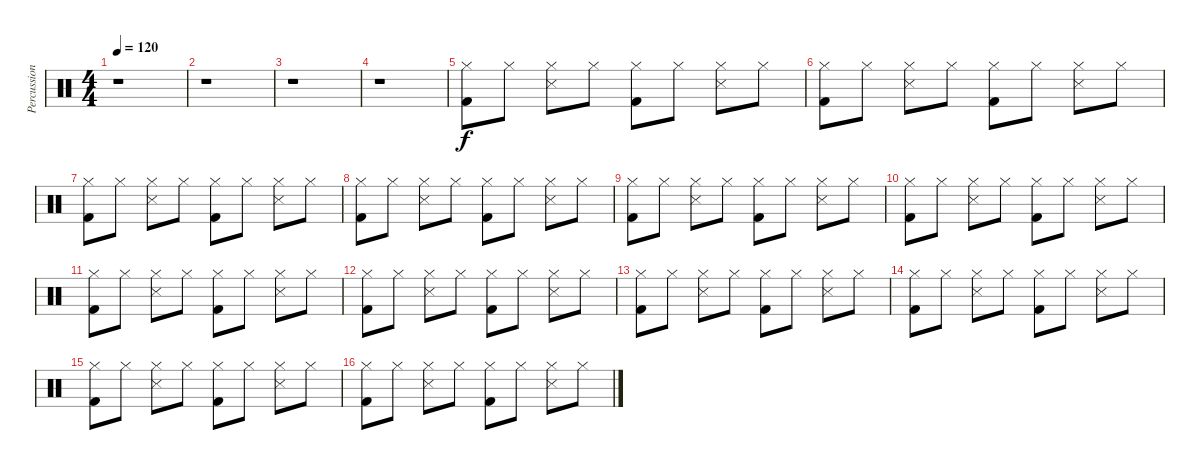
\track ("Percussions" "Percussion") {instrument percussion}
\staff {score}
\articulation defaults
\ts (4 4)
\tempo 120
\clef neutral
\ks c
r.1{dy f} |
r.1 |
r.1 |
r.1 |
("Kick (hit) 2" "Hi-Hat (closed)").8 "Hi-Hat (closed)".8 ("Snare (side stick) 3" "Hi-Hat (closed)").8 "Hi-Hat (closed)".8 ("Kick (hit) 2" "Hi-Hat (closed)").8 "Hi-Hat (closed)".8 ("Snare (side stick) 3" "Hi-Hat (closed)").8 "Hi-Hat (closed)".8 |
("Kick (hit) 2" "Hi-Hat (closed)").8 "Hi-Hat (closed)".8 ("Snare (side stick) 3" "Hi-Hat (closed)").8 "Hi-Hat (closed)".8 ("Kick (hit) 2" "Hi-Hat (closed)").8 "Hi-Hat (closed)".8 ("Snare (side stick) 3" "Hi-Hat (closed)").8 "Hi-Hat (closed)".8 |
("Kick (hit) 2" "Hi-Hat (closed)").8 "Hi-Hat (closed)".8 ("Snare (side stick) 3" "Hi-Hat (closed)").8 "Hi-Hat (closed)".8 ("Kick (hit) 2" "Hi-Hat (closed)").8 "Hi-Hat (closed)".8 ("Snare (side stick) 3" "Hi-Hat (closed)").8 "Hi-Hat (closed)".8 |
("Kick (hit) 2" "Hi-Hat (closed)").8 "Hi-Hat (closed)".8 ("Snare (side stick) 3" "Hi-Hat (closed)").8 "Hi-Hat (closed)".8 ("Kick (hit) 2" "Hi-Hat (closed)").8 "Hi-Hat (closed)".8 ("Snare (side stick) 3" "Hi-Hat (closed)").8 "Hi-Hat (closed)".8 |
("Kick (hit) 2" "Hi-Hat (closed)").8 "Hi-Hat (closed)".8 ("Snare (side stick) 3" "Hi-Hat (closed)").8 "Hi-Hat (closed)".8 ("Kick (hit) 2" "Hi-Hat (closed)").8 "Hi-Hat (closed)".8 ("Snare (side stick) 3" "Hi-Hat (closed)").8 "Hi-Hat (closed)".8 |
("Kick (hit) 2" "Hi-Hat (closed)").8 "Hi-Hat (closed)".8 ("Snare (side stick) 3" "Hi-Hat (closed)").8 "Hi-Hat (closed)".8 ("Kick (hit) 2" "Hi-Hat (closed)").8 "Hi-Hat (closed)".8 ("Snare (side stick) 3" "Hi-Hat (closed)").8 "Hi-Hat (closed)".8 |
("Kick (hit) 2" "Hi-Hat (closed)").8 "Hi-Hat (closed)".8 ("Snare (side stick) 3" "Hi-Hat (closed)").8 "Hi-Hat (closed)".8 ("Kick (hit) 2" "Hi-Hat (closed)").8 "Hi-Hat (closed)".8 ("Snare (side stick) 3" "Hi-Hat (closed)").8 "Hi-Hat (closed)".8 |
("Kick (hit) 2" "Hi-Hat (closed)").8 "Hi-Hat (closed)".8 ("Snare (side stick) 3" "Hi-Hat (closed)").8 "Hi-Hat (closed)".8 ("Kick (hit) 2" "Hi-Hat (closed)").8 "Hi-Hat (closed)".8 ("Snare (side stick) 3" "Hi-Hat (closed)").8 "Hi-Hat (closed)".8 |
("Kick (hit) 2" "Hi-Hat (closed)").8 "Hi-Hat (closed)".8 ("Snare (side stick) 3" "Hi-Hat (closed)").8 "Hi-Hat (closed)".8 ("Kick (hit) 2" "Hi-Hat (closed)").8 "Hi-Hat (closed)".8 ("Snare (side stick) 3" "Hi-Hat (closed)").8 "Hi-Hat (closed)".8 |
("Kick (hit) 2" "Hi-Hat (closed)").8 "Hi-Hat (closed)".8 ("Snare (side stick) 3" "Hi-Hat (closed)").8 "Hi-Hat (closed)".8 ("Kick (hit) 2" "Hi-Hat (closed)").8 "Hi-Hat (closed)".8 ("Snare (side stick) 3" "Hi-Hat (closed)").8 "Hi-Hat (closed)".8 |
("Kick (hit) 2" "Hi-Hat (closed)").8 "Hi-Hat (closed)".8 ("Snare (side stick) 3" "Hi-Hat (closed)").8 "Hi-Hat (closed)".8 ("Kick (hit) 2" "Hi-Hat (closed)").8 "Hi-Hat (closed)".8 ("Snare (side stick) 3" "Hi-Hat (closed)").8 "Hi-Hat (closed)".8 |
("Kick (hit) 2" "Hi-Hat (closed)").8 "Hi-Hat (closed)".8 ("Snare (side stick) 3" "Hi-Hat (closed)").8 "Hi-Hat (closed)".8 ("Kick (hit) 2" "Hi-Hat (closed)").8 "Hi-Hat (closed)".8 ("Snare (side stick) 3" "Hi-Hat (closed)").8 "Hi-Hat (closed)".8
